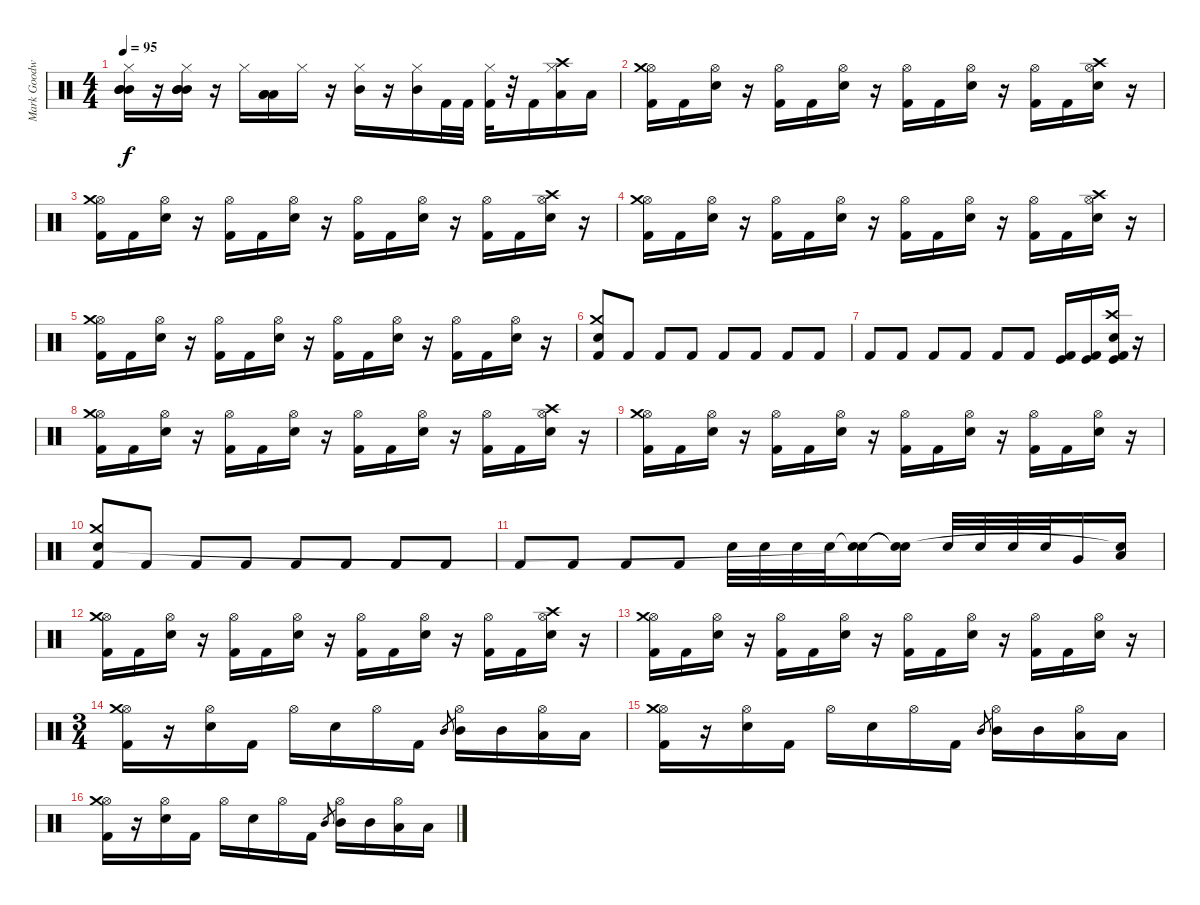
\track ("Mark Goodwin" "Mark Goodw") {instrument percussion}
\staff {score}
\articulation defaults
\ts (4 4)
\tempo 95
\clef neutral
\ks c
("Hi-Hat (closed)" "Mid Tom (hit)" "Mid Tom (hit)" "Mid Tom (hit)").16{dy f} r.16 ("Hi-Hat (closed)" "Mid Tom (hit)" "Mid Tom (hit)" "Mid Tom (hit)").16 r.16 "Hi-Hat (closed)".16 ("Low Floor Tom (hit)" "Low Floor Tom (hit)" "Low Floor Tom (hit)").16 "Hi-Hat (closed)".16 r.16 ("Hi-Hat (closed)" "Mid Tom (hit)").16 r.16 ("Hi-Hat (closed)" "Mid Tom (hit)").16 "Kick (hit) 2".32 "Kick (hit) 2".32 ("Hi-Hat (closed)" "Kick (hit) 2").32 r.32 "Kick (hit) 2".16 ("Hi-Hat (closed)" "Crash high (hit)" "Low Floor Tom (hit)").16 "Low Floor Tom (hit)".16 |
("Hi-Hat (open)" "Crash medium (hit)" "Kick (hit) 2").16 "Kick (hit) 2".16 ("Hi-Hat (open)" "Electric Snare (hit)").16 r.16 ("Hi-Hat (open)" "Kick (hit) 2").16 "Kick (hit) 2".16 ("Hi-Hat (open)" "Electric Snare (hit)").16 r.16 ("Hi-Hat (open)" "Kick (hit) 2").16 "Kick (hit) 2".16 ("Hi-Hat (open)" "Electric Snare (hit)").16 r.16 ("Hi-Hat (open)" "Kick (hit) 2").16 "Kick (hit) 2".16 ("Hi-Hat (open)" "Crash high (hit)" "Electric Snare (hit)").16 r.16 |
("Hi-Hat (open)" "Crash medium (hit)" "Kick (hit) 2").16 "Kick (hit) 2".16 ("Hi-Hat (open)" "Electric Snare (hit)").16 r.16 ("Hi-Hat (open)" "Kick (hit) 2").16 "Kick (hit) 2".16 ("Hi-Hat (open)" "Electric Snare (hit)").16 r.16 ("Hi-Hat (open)" "Kick (hit) 2").16 "Kick (hit) 2".16 ("Hi-Hat (open)" "Electric Snare (hit)").16 r.16 ("Hi-Hat (open)" "Kick (hit) 2").16 "Kick (hit) 2".16 ("Hi-Hat (open)" "Crash high (hit)" "Electric Snare (hit)").16 r.16 |
("Hi-Hat (open)" "Crash medium (hit)" "Kick (hit) 2").16 "Kick (hit) 2".16 ("Hi-Hat (open)" "Electric Snare (hit)").16 r.16 ("Hi-Hat (open)" "Kick (hit) 2").16 "Kick (hit) 2".16 ("Hi-Hat (open)" "Electric Snare (hit)").16 r.16 ("Hi-Hat (open)" "Kick (hit) 2").16 "Kick (hit) 2".16 ("Hi-Hat (open)" "Electric Snare (hit)").16 r.16 ("Hi-Hat (open)" "Kick (hit) 2").16 "Kick (hit) 2".16 ("Hi-Hat (open)" "Crash high (hit)" "Electric Snare (hit)").16 r.16 |
("Hi-Hat (open)" "Crash medium (hit)" "Kick (hit) 2").16 "Kick (hit) 2".16 ("Hi-Hat (open)" "Electric Snare (hit)").16 r.16 ("Hi-Hat (open)" "Kick (hit) 2").16 "Kick (hit) 2".16 ("Hi-Hat (open)" "Electric Snare (hit)").16 r.16 ("Hi-Hat (open)" "Kick (hit) 2").16 "Kick (hit) 2".16 ("Hi-Hat (open)" "Electric Snare (hit)").16 r.16 ("Hi-Hat (open)" "Kick (hit) 2").16 "Kick (hit) 2".16 ("Hi-Hat (open)" "Electric Snare (hit)").16 r.16 |
("Crash medium (hit)" "Electric Snare (hit)" "Kick (hit) 2").8 "Kick (hit) 2".8 "Kick (hit) 2".8 "Kick (hit) 2".8 "Kick (hit) 2".8 "Kick (hit) 2".8 "Kick (hit) 2".8 "Kick (hit) 2".8 |
"Kick (hit) 2".8 "Kick (hit) 2".8 "Kick (hit) 2".8 "Kick (hit) 2".8 "Kick (hit) 2".8 "Kick (hit) 2".8 ("Kick (hit)" "Kick (hit) 2").16 ("Kick (hit)" "Kick (hit) 2").16 ("Crash high (hit)" "Electric Snare (hit)" "Kick (hit) 2" "Kick (hit)").16 r.16 |
("Hi-Hat (open)" "Crash medium (hit)" "Kick (hit) 2").16 "Kick (hit) 2".16 ("Hi-Hat (open)" "Electric Snare (hit)").16 r.16 ("Hi-Hat (open)" "Kick (hit) 2").16 "Kick (hit) 2".16 ("Hi-Hat (open)" "Electric Snare (hit)").16 r.16 ("Hi-Hat (open)" "Kick (hit) 2").16 "Kick (hit) 2".16 ("Hi-Hat (open)" "Electric Snare (hit)").16 r.16 ("Hi-Hat (open)" "Kick (hit) 2").16 "Kick (hit) 2".16 ("Hi-Hat (open)" "Crash high (hit)" "Electric Snare (hit)").16 r.16 |
("Hi-Hat (open)" "Crash medium (hit)" "Kick (hit) 2").16 "Kick (hit) 2".16 ("Hi-Hat (open)" "Electric Snare (hit)").16 r.16 ("Hi-Hat (open)" "Kick (hit) 2").16 "Kick (hit) 2".16 ("Hi-Hat (open)" "Electric Snare (hit)").16 r.16 ("Hi-Hat (open)" "Kick (hit) 2").16 "Kick (hit) 2".16 ("Hi-Hat (open)" "Electric Snare (hit)").16 r.16 ("Hi-Hat (open)" "Kick (hit) 2").16 "Kick (hit) 2".16 ("Hi-Hat (open)" "Electric Snare (hit)").16 r.16 |
("Crash medium (hit)" "Electric Snare (hit)" "Kick (hit) 2").8 "Kick (hit) 2".8 "Kick (hit) 2".8 "Kick (hit) 2".8 "Kick (hit) 2".8 "Kick (hit) 2".8 "Kick (hit) 2".8 "Kick (hit) 2".8 |
"Kick (hit) 2".8 "Kick (hit) 2".8 "Kick (hit) 2".8 "Kick (hit) 2".8 "Electric Snare (hit)".32 "Electric Snare (hit)".32 "Electric Snare (hit)".32 "Electric Snare (hit)".32 ("Snare (hit)"{t} "Snare (hit)"{t}).16 ("Snare (hit)"{t} "Snare (hit)"{t}).16 "Electric Snare (hit)".32 "Electric Snare (hit)".32 "Electric Snare (hit)".32 "Electric Snare (hit)".32 "Very Low Tom (hit)".16 ("Low Floor Tom (hit)" "Snare (hit)"{t}).16 |
("Hi-Hat (open)" "Crash medium (hit)" "Kick (hit) 2").16 "Kick (hit) 2".16 ("Hi-Hat (open)" "Electric Snare (hit)").16 r.16 ("Hi-Hat (open)" "Kick (hit) 2").16 "Kick (hit) 2".16 ("Hi-Hat (open)" "Electric Snare (hit)").16 r.16 ("Hi-Hat (open)" "Kick (hit) 2").16 "Kick (hit) 2".16 ("Hi-Hat (open)" "Electric Snare (hit)").16 r.16 ("Hi-Hat (open)" "Kick (hit) 2").16 "Kick (hit) 2".16 ("Hi-Hat (open)" "Crash high (hit)" "Electric Snare (hit)").16 r.16 |
("Hi-Hat (open)" "Crash medium (hit)" "Kick (hit) 2").16 "Kick (hit) 2".16 ("Hi-Hat (open)" "Electric Snare (hit)").16 r.16 ("Hi-Hat (open)" "Kick (hit) 2").16 "Kick (hit) 2".16 ("Hi-Hat (open)" "Electric Snare (hit)").16 r.16 ("Hi-Hat (open)" "Kick (hit) 2").16 "Kick (hit) 2".16 ("Hi-Hat (open)" "Electric Snare (hit)").16 r.16 ("Hi-Hat (open)" "Kick (hit) 2").16 "Kick (hit) 2".16 ("Hi-Hat (open)" "Electric Snare (hit)").16 r.16 |
\ts (3 4)
("Hi-Hat (open)" "Crash medium (hit)" "Kick (hit) 2").16 r.16 ("Hi-Hat (open)" "Electric Snare (hit)").16 "Kick (hit) 2".16 "Hi-Hat (open)".16 "Electric Snare (hit)".16 "Hi-Hat (open)".16 "Kick (hit) 2".16 "Mid Tom (hit)".8{gr} ("Hi-Hat (open)" "Mid Tom (hit)").16 "Mid Tom (hit)".16 ("Hi-Hat (open)" "Low Floor Tom (hit)").16 "Low Floor Tom (hit)".16 |
("Hi-Hat (open)" "Crash medium (hit)" "Kick (hit) 2").16 r.16 ("Hi-Hat (open)" "Electric Snare (hit)").16 "Kick (hit) 2".16 "Hi-Hat (open)".16 "Electric Snare (hit)".16 "Hi-Hat (open)".16 "Kick (hit) 2".16 "Mid Tom (hit)".8{gr} ("Hi-Hat (open)" "Mid Tom (hit)").16 "Mid Tom (hit)".16 ("Hi-Hat (open)" "Low Floor Tom (hit)").16 "Low Floor Tom (hit)".16 |
("Hi-Hat (open)" "Crash medium (hit)" "Kick (hit) 2").16 r.16 ("Hi-Hat (open)" "Electric Snare (hit)").16 "Kick (hit) 2".16 "Hi-Hat (open)".16 "Electric Snare (hit)".16 "Hi-Hat (open)".16 "Kick (hit) 2".16 "Mid Tom (hit)".8{gr} ("Hi-Hat (open)" "Mid Tom (hit)").16 "Mid Tom (hit)".16 ("Hi-Hat (open)" "Low Floor Tom (hit)").16 "Low Floor Tom (hit)".16
